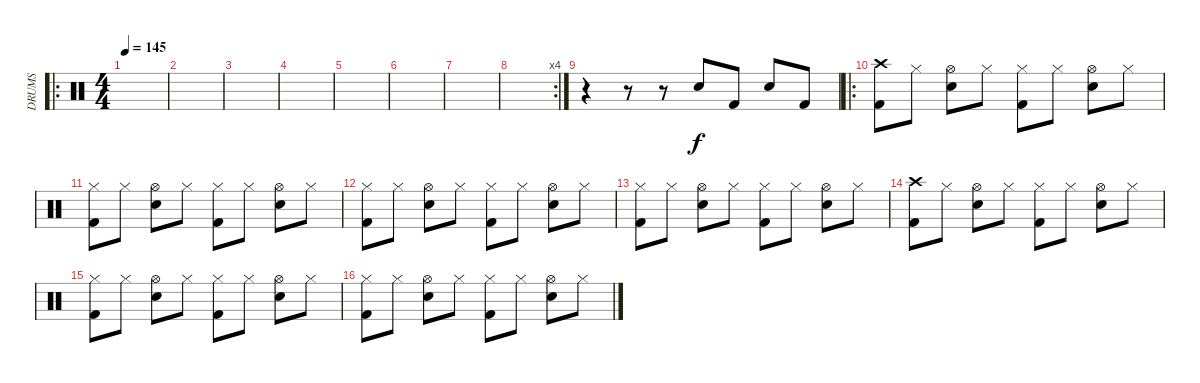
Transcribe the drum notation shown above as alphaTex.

\track ("DRUMS" "DRUMS") {instrument percussion}
\staff {score}
\articulation defaults
\ro
\ts (4 4)
\tempo 145
\clef neutral
\ks c
|
|
|
|
|
|
|
\rc 4
|
r.4 r.8 r.8 "Electric Snare (hit)".8 "Kick (hit) 2".8 "Electric Snare (hit)".8 "Kick (hit) 2".8 |
\ro
("Crash high (hit)" "Kick (hit) 2").8 "Hi-Hat (closed)".8 ("Hi-Hat (open)" "Electric Snare (hit)").8 "Hi-Hat (closed)".8 ("Hi-Hat (closed)" "Kick (hit) 2").8 "Hi-Hat (closed)".8 ("Hi-Hat (open)" "Electric Snare (hit)").8 "Hi-Hat (closed)".8 |
("Hi-Hat (closed)" "Kick (hit) 2").8 "Hi-Hat (closed)".8 ("Hi-Hat (open)" "Electric Snare (hit)").8 "Hi-Hat (closed)".8 ("Hi-Hat (closed)" "Kick (hit) 2").8 "Hi-Hat (closed)".8 ("Hi-Hat (open)" "Electric Snare (hit)").8 "Hi-Hat (closed)".8 |
("Hi-Hat (closed)" "Kick (hit) 2").8 "Hi-Hat (closed)".8 ("Hi-Hat (open)" "Electric Snare (hit)").8 "Hi-Hat (closed)".8 ("Hi-Hat (closed)" "Kick (hit) 2").8 "Hi-Hat (closed)".8 ("Hi-Hat (open)" "Electric Snare (hit)").8 "Hi-Hat (closed)".8 |
("Hi-Hat (closed)" "Kick (hit) 2").8 "Hi-Hat (closed)".8 ("Hi-Hat (open)" "Electric Snare (hit)").8 "Hi-Hat (closed)".8 ("Hi-Hat (closed)" "Kick (hit) 2").8 "Hi-Hat (closed)".8 ("Hi-Hat (open)" "Electric Snare (hit)").8 "Hi-Hat (closed)".8 |
("Crash high (hit)" "Kick (hit) 2").8 "Hi-Hat (closed)".8 ("Hi-Hat (open)" "Electric Snare (hit)").8 "Hi-Hat (closed)".8 ("Hi-Hat (closed)" "Kick (hit) 2").8 "Hi-Hat (closed)".8 ("Hi-Hat (open)" "Electric Snare (hit)").8 "Hi-Hat (closed)".8 |
("Hi-Hat (closed)" "Kick (hit) 2").8 "Hi-Hat (closed)".8 ("Hi-Hat (open)" "Electric Snare (hit)").8 "Hi-Hat (closed)".8 ("Hi-Hat (closed)" "Kick (hit) 2").8 "Hi-Hat (closed)".8 ("Hi-Hat (open)" "Electric Snare (hit)").8 "Hi-Hat (closed)".8 |
("Hi-Hat (closed)" "Kick (hit) 2").8 "Hi-Hat (closed)".8 ("Hi-Hat (open)" "Electric Snare (hit)").8 "Hi-Hat (closed)".8 ("Hi-Hat (closed)" "Kick (hit) 2").8 "Hi-Hat (closed)".8 ("Hi-Hat (open)" "Electric Snare (hit)").8 "Hi-Hat (closed)".8
